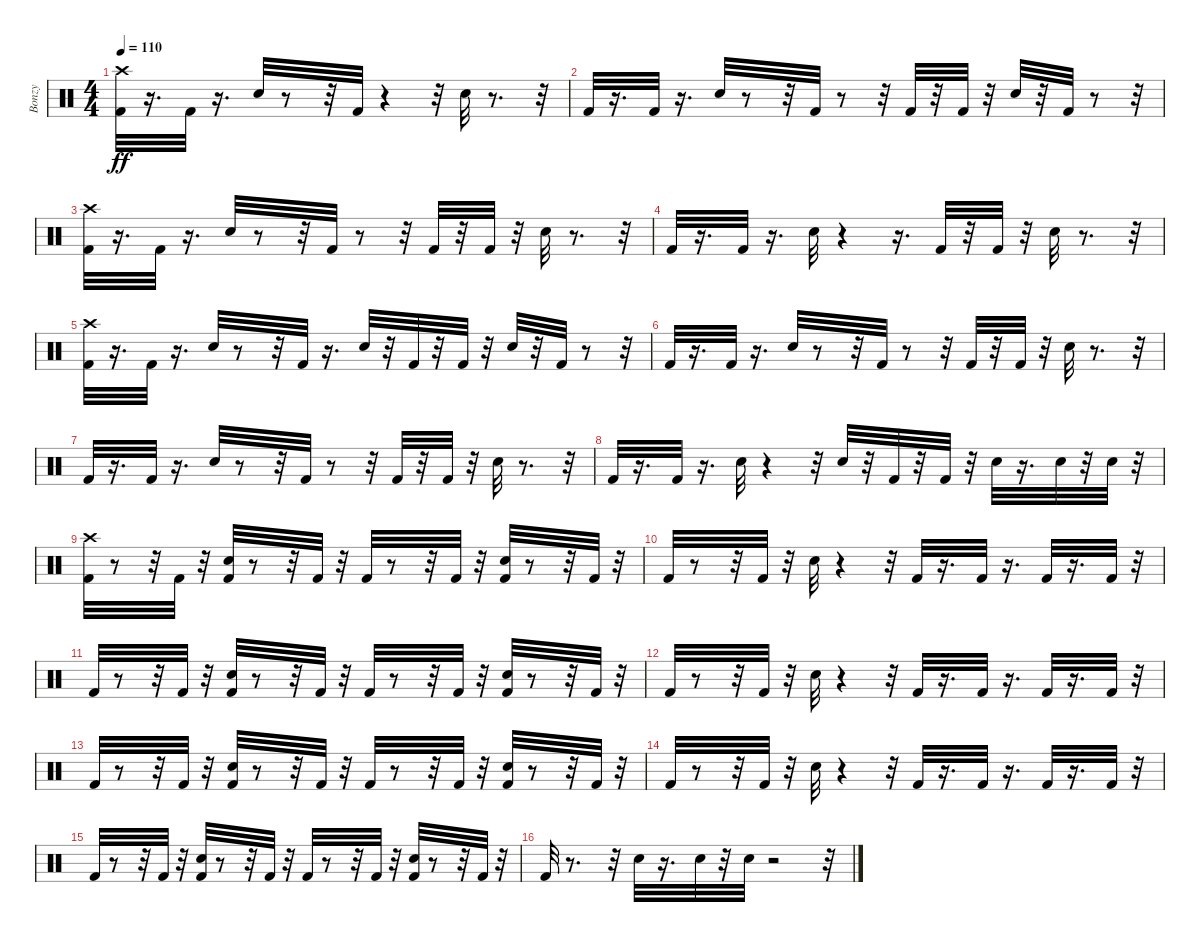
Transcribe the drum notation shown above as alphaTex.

\track ("Bonzy" "Bonzy") {instrument percussion}
\staff {score}
\articulation defaults
\ts (4 4)
\tempo 110
\clef neutral
\ks c
("Kick (hit) 2" "Crash high (hit)").32{dy ff} r.16{d} "Kick (hit) 2".32 r.16{d} "Electric Snare (hit)".32 r.8 r.32 "Kick (hit) 2".32 r.4 r.32 "Electric Snare (hit)".32 r.8{d} r.32 |
"Kick (hit) 2".32 r.16{d} "Kick (hit) 2".32 r.16{d} "Electric Snare (hit)".32 r.8 r.32 "Kick (hit) 2".32 r.8 r.32 "Kick (hit) 2".32 r.32 "Kick (hit) 2".32 r.32 "Electric Snare (hit)".32 r.32 "Kick (hit) 2".32 r.8 r.32 |
("Crash high (hit)" "Kick (hit) 2").32 r.16{d} "Kick (hit) 2".32 r.16{d} "Electric Snare (hit)".32 r.8 r.32 "Kick (hit) 2".32 r.8 r.32 "Kick (hit) 2".32 r.32 "Kick (hit) 2".32 r.32 "Electric Snare (hit)".32 r.8{d} r.32 |
"Kick (hit) 2".32 r.16{d} "Kick (hit) 2".32 r.16{d} "Electric Snare (hit)".32 r.4 r.16{d} "Kick (hit) 2".32 r.32 "Kick (hit) 2".32 r.32 "Electric Snare (hit)".32 r.8{d} r.32 |
("Crash high (hit)" "Kick (hit) 2").32 r.16{d} "Kick (hit) 2".32 r.16{d} "Electric Snare (hit)".32 r.8 r.32 "Kick (hit) 2".32 r.16{d} "Electric Snare (hit)".32 r.32 "Kick (hit) 2".32 r.32 "Kick (hit) 2".32 r.32 "Electric Snare (hit)".32 r.32 "Kick (hit) 2".32 r.8 r.32 |
"Kick (hit) 2".32 r.16{d} "Kick (hit) 2".32 r.16{d} "Electric Snare (hit)".32 r.8 r.32 "Kick (hit) 2".32 r.8 r.32 "Kick (hit) 2".32 r.32 "Kick (hit) 2".32 r.32 "Electric Snare (hit)".32 r.8{d} r.32 |
"Kick (hit) 2".32 r.16{d} "Kick (hit) 2".32 r.16{d} "Electric Snare (hit)".32 r.8 r.32 "Kick (hit) 2".32 r.8 r.32 "Kick (hit) 2".32 r.32 "Kick (hit) 2".32 r.32 "Electric Snare (hit)".32 r.8{d} r.32 |
"Kick (hit) 2".32 r.16{d} "Kick (hit) 2".32 r.16{d} "Electric Snare (hit)".32 r.4 r.32 "Electric Snare (hit)".32 r.32 "Kick (hit) 2".32 r.32 "Kick (hit) 2".32 r.32 "Electric Snare (hit)".32 r.16{d} "Electric Snare (hit)".32 r.32 "Electric Snare (hit)".32 r.32 |
("Kick (hit) 2" "Crash high (hit)").32 r.8 r.32 "Kick (hit) 2".32 r.32 ("Kick (hit) 2" "Electric Snare (hit)").32 r.8 r.32 "Kick (hit) 2".32 r.32 "Kick (hit) 2".32 r.8 r.32 "Kick (hit) 2".32 r.32 ("Kick (hit) 2" "Electric Snare (hit)").32 r.8 r.32 "Kick (hit) 2".32 r.32 |
"Kick (hit) 2".32 r.8 r.32 "Kick (hit) 2".32 r.32 "Electric Snare (hit)".32 r.4 r.32 "Kick (hit) 2".32 r.16{d} "Kick (hit) 2".32 r.16{d} "Kick (hit) 2".32 r.16{d} "Kick (hit) 2".32 r.32 |
"Kick (hit) 2".32 r.8 r.32 "Kick (hit) 2".32 r.32 ("Kick (hit) 2" "Electric Snare (hit)").32 r.8 r.32 "Kick (hit) 2".32 r.32 "Kick (hit) 2".32 r.8 r.32 "Kick (hit) 2".32 r.32 ("Kick (hit) 2" "Electric Snare (hit)").32 r.8 r.32 "Kick (hit) 2".32 r.32 |
"Kick (hit) 2".32 r.8 r.32 "Kick (hit) 2".32 r.32 "Electric Snare (hit)".32 r.4 r.32 "Kick (hit) 2".32 r.16{d} "Kick (hit) 2".32 r.16{d} "Kick (hit) 2".32 r.16{d} "Kick (hit) 2".32 r.32 |
"Kick (hit) 2".32 r.8 r.32 "Kick (hit) 2".32 r.32 ("Kick (hit) 2" "Electric Snare (hit)").32 r.8 r.32 "Kick (hit) 2".32 r.32 "Kick (hit) 2".32 r.8 r.32 "Kick (hit) 2".32 r.32 ("Electric Snare (hit)" "Kick (hit) 2").32 r.8 r.32 "Kick (hit) 2".32 r.32 |
"Kick (hit) 2".32 r.8 r.32 "Kick (hit) 2".32 r.32 "Electric Snare (hit)".32 r.4 r.32 "Kick (hit) 2".32 r.16{d} "Kick (hit) 2".32 r.16{d} "Kick (hit) 2".32 r.16{d} "Kick (hit) 2".32 r.32 |
"Kick (hit) 2".32 r.8 r.32 "Kick (hit) 2".32 r.32 ("Kick (hit) 2" "Electric Snare (hit)").32 r.8 r.32 "Kick (hit) 2".32 r.32 "Kick (hit) 2".32 r.8 r.32 "Kick (hit) 2".32 r.32 ("Electric Snare (hit)" "Kick (hit) 2").32 r.8 r.32 "Kick (hit) 2".32 r.32 |
"Kick (hit) 2".32 r.8{d} r.32 "Electric Snare (hit)".32 r.16{d} "Electric Snare (hit)".32 r.32 "Electric Snare (hit)".32 r.2 r.32
